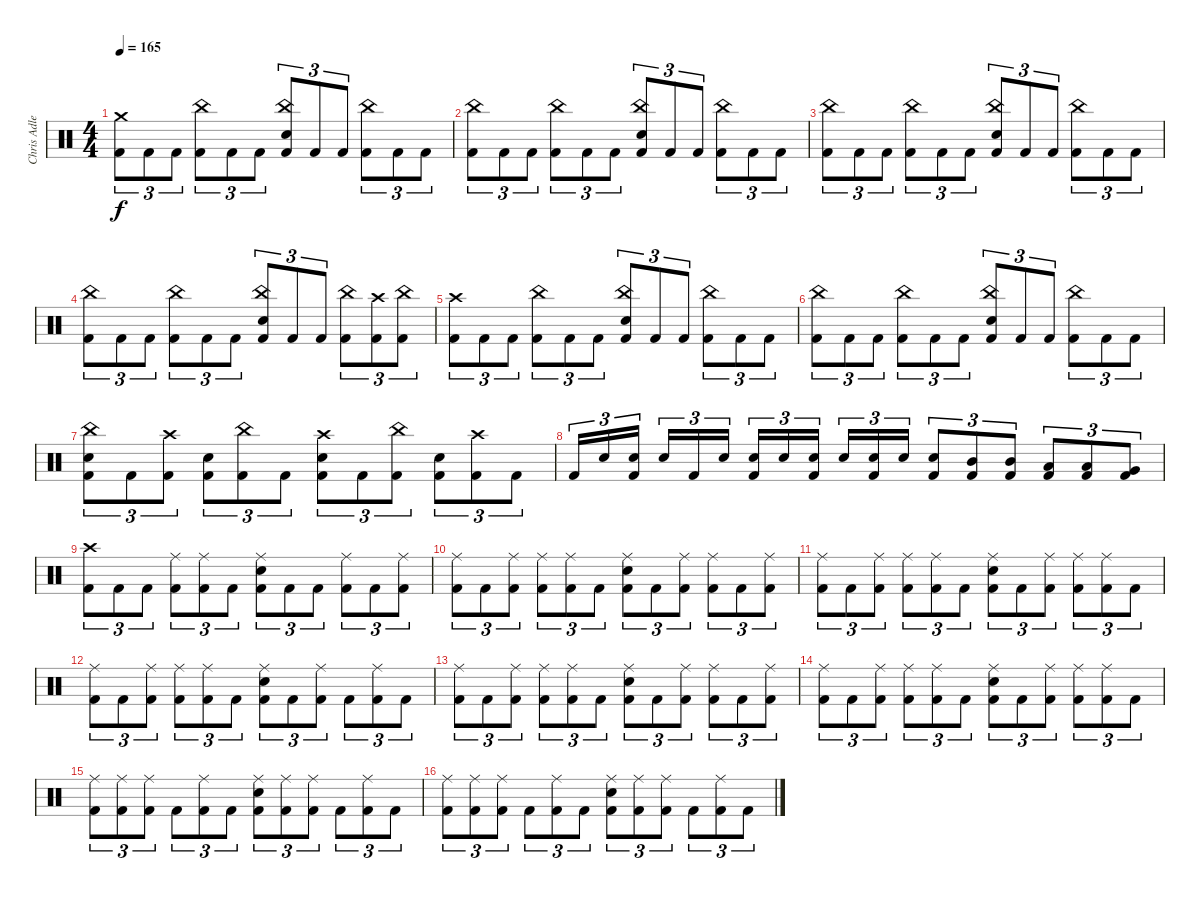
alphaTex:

\track ("Chris Adler" "Chris Adle") {instrument percussion}
\staff {score}
\articulation defaults
\ts (4 4)
\tempo 165
\clef neutral
\ks c
("Crash medium (hit)" "Kick (hit) 2").8{tu (3 2) dy f} "Kick (hit) 2".8{tu (3 2)} "Kick (hit) 2".8{tu (3 2)} ("China (hit)" "Kick (hit) 2").8{tu (3 2)} "Kick (hit) 2".8{tu (3 2)} "Kick (hit) 2".8{tu (3 2)} ("China (hit)" "Electric Snare (hit)" "Kick (hit) 2").8{tu (3 2)} "Kick (hit) 2".8{tu (3 2)} "Kick (hit) 2".8{tu (3 2)} ("China (hit)" "Kick (hit) 2").8{tu (3 2)} "Kick (hit) 2".8{tu (3 2)} "Kick (hit) 2".8{tu (3 2)} |
("China (hit)" "Kick (hit) 2").8{tu (3 2)} "Kick (hit) 2".8{tu (3 2)} "Kick (hit) 2".8{tu (3 2)} ("China (hit)" "Kick (hit) 2").8{tu (3 2)} "Kick (hit) 2".8{tu (3 2)} "Kick (hit) 2".8{tu (3 2)} ("China (hit)" "Electric Snare (hit)" "Kick (hit) 2").8{tu (3 2)} "Kick (hit) 2".8{tu (3 2)} "Kick (hit) 2".8{tu (3 2)} ("China (hit)" "Kick (hit) 2").8{tu (3 2)} "Kick (hit) 2".8{tu (3 2)} "Kick (hit) 2".8{tu (3 2)} |
("China (hit)" "Kick (hit) 2").8{tu (3 2)} "Kick (hit) 2".8{tu (3 2)} "Kick (hit) 2".8{tu (3 2)} ("China (hit)" "Kick (hit) 2").8{tu (3 2)} "Kick (hit) 2".8{tu (3 2)} "Kick (hit) 2".8{tu (3 2)} ("China (hit)" "Electric Snare (hit)" "Kick (hit) 2").8{tu (3 2)} "Kick (hit) 2".8{tu (3 2)} "Kick (hit) 2".8{tu (3 2)} ("China (hit)" "Kick (hit) 2").8{tu (3 2)} "Kick (hit) 2".8{tu (3 2)} "Kick (hit) 2".8{tu (3 2)} |
("China (hit)" "Kick (hit) 2").8{tu (3 2)} "Kick (hit) 2".8{tu (3 2)} "Kick (hit) 2".8{tu (3 2)} ("China (hit)" "Kick (hit) 2").8{tu (3 2)} "Kick (hit) 2".8{tu (3 2)} "Kick (hit) 2".8{tu (3 2)} ("China (hit)" "Electric Snare (hit)" "Kick (hit) 2").8{tu (3 2)} "Kick (hit) 2".8{tu (3 2)} "Kick (hit) 2".8{tu (3 2)} ("China (hit)" "Kick (hit) 2").8{tu (3 2)} ("Crash high (hit)" "Kick (hit) 2").8{tu (3 2)} ("China (hit)" "Kick (hit) 2").8{tu (3 2)} |
("Crash high (hit)" "Kick (hit) 2").8{tu (3 2)} "Kick (hit) 2".8{tu (3 2)} "Kick (hit) 2".8{tu (3 2)} ("China (hit)" "Kick (hit) 2").8{tu (3 2)} "Kick (hit) 2".8{tu (3 2)} "Kick (hit) 2".8{tu (3 2)} ("China (hit)" "Electric Snare (hit)" "Kick (hit) 2").8{tu (3 2)} "Kick (hit) 2".8{tu (3 2)} "Kick (hit) 2".8{tu (3 2)} ("China (hit)" "Kick (hit) 2").8{tu (3 2)} "Kick (hit) 2".8{tu (3 2)} "Kick (hit) 2".8{tu (3 2)} |
("China (hit)" "Kick (hit) 2").8{tu (3 2)} "Kick (hit) 2".8{tu (3 2)} "Kick (hit) 2".8{tu (3 2)} ("China (hit)" "Kick (hit) 2").8{tu (3 2)} "Kick (hit) 2".8{tu (3 2)} "Kick (hit) 2".8{tu (3 2)} ("China (hit)" "Electric Snare (hit)" "Kick (hit) 2").8{tu (3 2)} "Kick (hit) 2".8{tu (3 2)} "Kick (hit) 2".8{tu (3 2)} ("China (hit)" "Kick (hit) 2").8{tu (3 2)} "Kick (hit) 2".8{tu (3 2)} "Kick (hit) 2".8{tu (3 2)} |
("China (hit)" "Electric Snare (hit)" "Kick (hit) 2").8{tu (3 2)} "Kick (hit) 2".8{tu (3 2)} ("Crash high (hit)" "Kick (hit) 2").8{tu (3 2)} ("Electric Snare (hit)" "Kick (hit) 2").8{tu (3 2)} ("China (hit)" "Kick (hit) 2").8{tu (3 2)} "Kick (hit) 2".8{tu (3 2)} ("Crash high (hit)" "Electric Snare (hit)" "Kick (hit) 2").8{tu (3 2)} "Kick (hit) 2".8{tu (3 2)} ("China (hit)" "Kick (hit) 2").8{tu (3 2)} ("Electric Snare (hit)" "Kick (hit) 2").8{tu (3 2)} ("Crash high (hit)" "Kick (hit) 2").8{tu (3 2)} "Kick (hit) 2".8{tu (3 2)} |
"Kick (hit) 2".16{tu (3 2)} "Electric Snare (hit)".16{tu (3 2)} ("Electric Snare (hit)" "Kick (hit) 2").16{tu (3 2)} "Electric Snare (hit)".16{tu (3 2)} "Kick (hit) 2".16{tu (3 2)} "Electric Snare (hit)".16{tu (3 2)} ("Electric Snare (hit)" "Kick (hit) 2").16{tu (3 2)} "Electric Snare (hit)".16{tu (3 2)} ("Electric Snare (hit)" "Kick (hit) 2").16{tu (3 2)} "Electric Snare (hit)".16{tu (3 2)} ("Electric Snare (hit)" "Kick (hit) 2").16{tu (3 2)} "Electric Snare (hit)".16{tu (3 2)} ("Electric Snare (hit)" "Kick (hit) 2").8{tu (3 2)} ("Mid Tom (hit)" "Kick (hit) 2").8{tu (3 2)} ("Mid Tom (hit)" "Kick (hit) 2").8{tu (3 2)} ("Low Tom (hit)" "Kick (hit) 2").8{tu (3 2)} ("Low Tom (hit)" "Kick (hit) 2").8{tu (3 2)} ("Very Low Tom (hit)" "Kick (hit) 2").8{tu (3 2)} |
("Crash high (hit)" "Kick (hit) 2").8{tu (3 2)} "Kick (hit) 2".8{tu (3 2)} "Kick (hit) 2".8{tu (3 2)} ("Ride (middle)" "Kick (hit) 2").8{tu (3 2)} ("Ride (middle)" "Kick (hit) 2").8{tu (3 2)} "Kick (hit) 2".8{tu (3 2)} ("Ride (middle)" "Electric Snare (hit)" "Kick (hit) 2").8{tu (3 2)} "Kick (hit) 2".8{tu (3 2)} "Kick (hit) 2".8{tu (3 2)} ("Ride (middle)" "Kick (hit) 2").8{tu (3 2)} "Kick (hit) 2".8{tu (3 2)} ("Ride (middle)" "Kick (hit) 2").8{tu (3 2)} |
("Ride (middle)" "Kick (hit) 2").8{tu (3 2)} "Kick (hit) 2".8{tu (3 2)} ("Ride (middle)" "Kick (hit) 2").8{tu (3 2)} ("Ride (middle)" "Kick (hit) 2").8{tu (3 2)} ("Ride (middle)" "Kick (hit) 2").8{tu (3 2)} "Kick (hit) 2".8{tu (3 2)} ("Ride (middle)" "Electric Snare (hit)" "Kick (hit) 2").8{tu (3 2)} "Kick (hit) 2".8{tu (3 2)} ("Ride (middle)" "Kick (hit) 2").8{tu (3 2)} ("Ride (middle)" "Kick (hit) 2").8{tu (3 2)} "Kick (hit) 2".8{tu (3 2)} ("Ride (middle)" "Kick (hit) 2").8{tu (3 2)} |
("Ride (middle)" "Kick (hit) 2").8{tu (3 2)} "Kick (hit) 2".8{tu (3 2)} ("Ride (middle)" "Kick (hit) 2").8{tu (3 2)} ("Ride (middle)" "Kick (hit) 2").8{tu (3 2)} ("Ride (middle)" "Kick (hit) 2").8{tu (3 2)} "Kick (hit) 2".8{tu (3 2)} ("Ride (middle)" "Electric Snare (hit)" "Kick (hit) 2").8{tu (3 2)} "Kick (hit) 2".8{tu (3 2)} ("Ride (middle)" "Kick (hit) 2").8{tu (3 2)} ("Ride (middle)" "Kick (hit) 2").8{tu (3 2)} ("Ride (middle)" "Kick (hit) 2").8{tu (3 2)} "Kick (hit) 2".8{tu (3 2)} |
("Ride (middle)" "Kick (hit) 2").8{tu (3 2)} "Kick (hit) 2".8{tu (3 2)} ("Ride (middle)" "Kick (hit) 2").8{tu (3 2)} ("Ride (middle)" "Kick (hit) 2").8{tu (3 2)} ("Ride (middle)" "Kick (hit) 2").8{tu (3 2)} "Kick (hit) 2".8{tu (3 2)} ("Ride (middle)" "Electric Snare (hit)" "Kick (hit) 2").8{tu (3 2)} "Kick (hit) 2".8{tu (3 2)} ("Ride (middle)" "Kick (hit) 2").8{tu (3 2)} "Kick (hit) 2".8{tu (3 2)} ("Ride (middle)" "Kick (hit) 2").8{tu (3 2)} "Kick (hit) 2".8{tu (3 2)} |
("Ride (middle)" "Kick (hit) 2").8{tu (3 2)} "Kick (hit) 2".8{tu (3 2)} ("Ride (middle)" "Kick (hit) 2").8{tu (3 2)} ("Ride (middle)" "Kick (hit) 2").8{tu (3 2)} ("Ride (middle)" "Kick (hit) 2").8{tu (3 2)} "Kick (hit) 2".8{tu (3 2)} ("Ride (middle)" "Electric Snare (hit)" "Kick (hit) 2").8{tu (3 2)} "Kick (hit) 2".8{tu (3 2)} ("Ride (middle)" "Kick (hit) 2").8{tu (3 2)} ("Ride (middle)" "Kick (hit) 2").8{tu (3 2)} "Kick (hit) 2".8{tu (3 2)} ("Ride (middle)" "Kick (hit) 2").8{tu (3 2)} |
("Ride (middle)" "Kick (hit) 2").8{tu (3 2)} "Kick (hit) 2".8{tu (3 2)} ("Ride (middle)" "Kick (hit) 2").8{tu (3 2)} ("Ride (middle)" "Kick (hit) 2").8{tu (3 2)} ("Ride (middle)" "Kick (hit) 2").8{tu (3 2)} "Kick (hit) 2".8{tu (3 2)} ("Ride (middle)" "Electric Snare (hit)" "Kick (hit) 2").8{tu (3 2)} "Kick (hit) 2".8{tu (3 2)} ("Ride (middle)" "Kick (hit) 2").8{tu (3 2)} ("Ride (middle)" "Kick (hit) 2").8{tu (3 2)} ("Ride (middle)" "Kick (hit) 2").8{tu (3 2)} "Kick (hit) 2".8{tu (3 2)} |
("Ride (middle)" "Kick (hit) 2").8{tu (3 2)} ("Ride (middle)" "Kick (hit) 2").8{tu (3 2)} ("Ride (middle)" "Kick (hit) 2").8{tu (3 2)} "Kick (hit) 2".8{tu (3 2)} ("Ride (middle)" "Kick (hit) 2").8{tu (3 2)} "Kick (hit) 2".8{tu (3 2)} ("Ride (middle)" "Electric Snare (hit)" "Kick (hit) 2").8{tu (3 2)} ("Ride (middle)" "Kick (hit) 2").8{tu (3 2)} ("Ride (middle)" "Kick (hit) 2").8{tu (3 2)} "Kick (hit) 2".8{tu (3 2)} ("Ride (middle)" "Kick (hit) 2").8{tu (3 2)} "Kick (hit) 2".8{tu (3 2)} |
("Ride (middle)" "Kick (hit) 2").8{tu (3 2)} ("Ride (middle)" "Kick (hit) 2").8{tu (3 2)} ("Ride (middle)" "Kick (hit) 2").8{tu (3 2)} "Kick (hit) 2".8{tu (3 2)} ("Ride (middle)" "Kick (hit) 2").8{tu (3 2)} "Kick (hit) 2".8{tu (3 2)} ("Ride (middle)" "Electric Snare (hit)" "Kick (hit) 2").8{tu (3 2)} ("Ride (middle)" "Kick (hit) 2").8{tu (3 2)} ("Ride (middle)" "Kick (hit) 2").8{tu (3 2)} "Kick (hit) 2".8{tu (3 2)} ("Ride (middle)" "Kick (hit) 2").8{tu (3 2)} "Kick (hit) 2".8{tu (3 2)}
